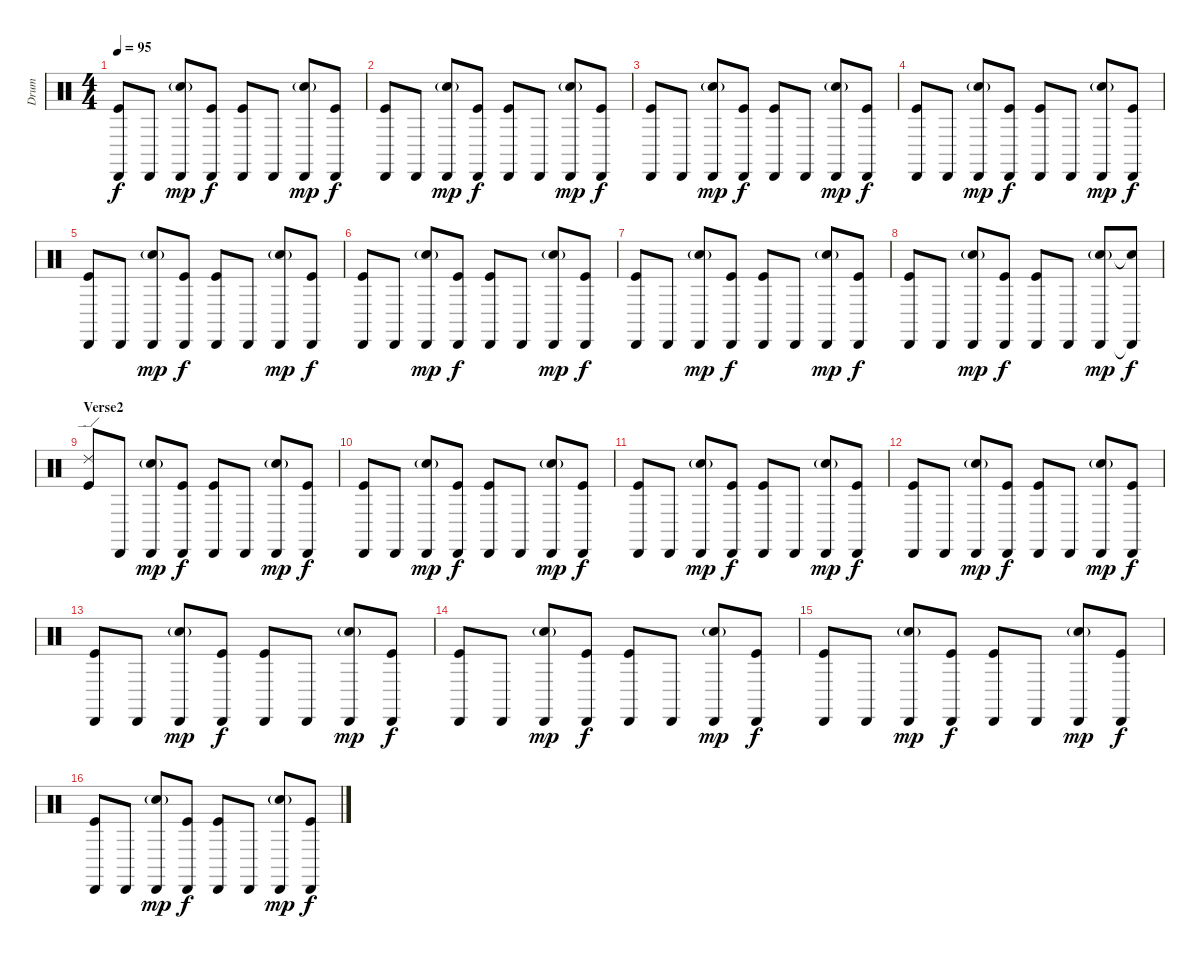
\track ("Drum" "Drum") {instrument percussion}
\staff {score}
\articulation defaults
\ts (4 4)
\tempo 95
\clef neutral
\ks c
("Cabasa (hit)" "Kick (hit)").8{dy f} "Cabasa (hit)".8 ("Cabasa (hit)" "Electric Snare (hit)"{g}).8{dy mp} ("Cabasa (hit)" "Kick (hit)").8{dy f} ("Cabasa (hit)" "Kick (hit)").8 "Cabasa (hit)".8 ("Cabasa (hit)" "Electric Snare (hit)"{g}).8{dy mp} ("Cabasa (hit)" "Kick (hit)").8{dy f} |
("Cabasa (hit)" "Kick (hit)").8 "Cabasa (hit)".8 ("Cabasa (hit)" "Electric Snare (hit)"{g}).8{dy mp} ("Cabasa (hit)" "Kick (hit)").8{dy f} ("Cabasa (hit)" "Kick (hit)").8 "Cabasa (hit)".8 ("Cabasa (hit)" "Electric Snare (hit)"{g}).8{dy mp} ("Cabasa (hit)" "Kick (hit)").8{dy f} |
("Cabasa (hit)" "Kick (hit)").8 "Cabasa (hit)".8 ("Cabasa (hit)" "Electric Snare (hit)"{g}).8{dy mp} ("Cabasa (hit)" "Kick (hit)").8{dy f} ("Cabasa (hit)" "Kick (hit)").8 "Cabasa (hit)".8 ("Cabasa (hit)" "Electric Snare (hit)"{g}).8{dy mp} ("Cabasa (hit)" "Kick (hit)").8{dy f} |
("Cabasa (hit)" "Kick (hit)").8 "Cabasa (hit)".8 ("Cabasa (hit)" "Electric Snare (hit)"{g}).8{dy mp} ("Cabasa (hit)" "Kick (hit)").8{dy f} ("Cabasa (hit)" "Kick (hit)").8 "Cabasa (hit)".8 ("Cabasa (hit)" "Electric Snare (hit)"{g}).8{dy mp} ("Cabasa (hit)" "Kick (hit)").8{dy f} |
("Cabasa (hit)" "Kick (hit)").8 "Cabasa (hit)".8 ("Cabasa (hit)" "Electric Snare (hit)"{g}).8{dy mp} ("Cabasa (hit)" "Kick (hit)").8{dy f} ("Cabasa (hit)" "Kick (hit)").8 "Cabasa (hit)".8 ("Cabasa (hit)" "Electric Snare (hit)"{g}).8{dy mp} ("Cabasa (hit)" "Kick (hit)").8{dy f} |
("Cabasa (hit)" "Kick (hit)").8 "Cabasa (hit)".8 ("Cabasa (hit)" "Electric Snare (hit)"{g}).8{dy mp} ("Cabasa (hit)" "Kick (hit)").8{dy f} ("Cabasa (hit)" "Kick (hit)").8 "Cabasa (hit)".8 ("Cabasa (hit)" "Electric Snare (hit)"{g}).8{dy mp} ("Cabasa (hit)" "Kick (hit)").8{dy f} |
("Cabasa (hit)" "Kick (hit)").8 "Cabasa (hit)".8 ("Cabasa (hit)" "Electric Snare (hit)"{g}).8{dy mp} ("Cabasa (hit)" "Kick (hit)").8{dy f} ("Cabasa (hit)" "Kick (hit)").8 "Cabasa (hit)".8 ("Cabasa (hit)" "Electric Snare (hit)"{g}).8{dy mp} ("Cabasa (hit)" "Kick (hit)").8{dy f} |
("Cabasa (hit)" "Kick (hit)").8 "Cabasa (hit)".8 ("Cabasa (hit)" "Electric Snare (hit)"{g}).8{dy mp} ("Cabasa (hit)" "Kick (hit)").8{dy f} ("Cabasa (hit)" "Kick (hit)").8 "Cabasa (hit)".8 ("Cabasa (hit)" "Electric Snare (hit)"{g}).8{dy mp} ("Cabasa (hit)"{t} "Snare (hit)"{t}).8{dy f} |
\section ("" "Verse2")
("Ride (edge) 2" "Kick (hit)").8 "Cabasa (hit)".8 ("Cabasa (hit)" "Electric Snare (hit)"{g}).8{dy mp} ("Cabasa (hit)" "Kick (hit)").8{dy f} ("Cabasa (hit)" "Kick (hit)").8 "Cabasa (hit)".8 ("Cabasa (hit)" "Electric Snare (hit)"{g}).8{dy mp} ("Cabasa (hit)" "Kick (hit)").8{dy f} |
("Cabasa (hit)" "Kick (hit)").8 "Cabasa (hit)".8 ("Cabasa (hit)" "Electric Snare (hit)"{g}).8{dy mp} ("Cabasa (hit)" "Kick (hit)").8{dy f} ("Cabasa (hit)" "Kick (hit)").8 "Cabasa (hit)".8 ("Cabasa (hit)" "Electric Snare (hit)"{g}).8{dy mp} ("Cabasa (hit)" "Kick (hit)").8{dy f} |
("Cabasa (hit)" "Kick (hit)").8 "Cabasa (hit)".8 ("Cabasa (hit)" "Electric Snare (hit)"{g}).8{dy mp} ("Cabasa (hit)" "Kick (hit)").8{dy f} ("Cabasa (hit)" "Kick (hit)").8 "Cabasa (hit)".8 ("Cabasa (hit)" "Electric Snare (hit)"{g}).8{dy mp} ("Cabasa (hit)" "Kick (hit)").8{dy f} |
("Cabasa (hit)" "Kick (hit)").8 "Cabasa (hit)".8 ("Cabasa (hit)" "Electric Snare (hit)"{g}).8{dy mp} ("Cabasa (hit)" "Kick (hit)").8{dy f} ("Cabasa (hit)" "Kick (hit)").8 "Cabasa (hit)".8 ("Cabasa (hit)" "Electric Snare (hit)"{g}).8{dy mp} ("Cabasa (hit)" "Kick (hit)").8{dy f} |
("Cabasa (hit)" "Kick (hit)").8 "Cabasa (hit)".8 ("Cabasa (hit)" "Electric Snare (hit)"{g}).8{dy mp} ("Cabasa (hit)" "Kick (hit)").8{dy f} ("Cabasa (hit)" "Kick (hit)").8 "Cabasa (hit)".8 ("Cabasa (hit)" "Electric Snare (hit)"{g}).8{dy mp} ("Cabasa (hit)" "Kick (hit)").8{dy f} |
("Cabasa (hit)" "Kick (hit)").8 "Cabasa (hit)".8 ("Cabasa (hit)" "Electric Snare (hit)"{g}).8{dy mp} ("Cabasa (hit)" "Kick (hit)").8{dy f} ("Cabasa (hit)" "Kick (hit)").8 "Cabasa (hit)".8 ("Cabasa (hit)" "Electric Snare (hit)"{g}).8{dy mp} ("Cabasa (hit)" "Kick (hit)").8{dy f} |
("Cabasa (hit)" "Kick (hit)").8 "Cabasa (hit)".8 ("Cabasa (hit)" "Electric Snare (hit)"{g}).8{dy mp} ("Cabasa (hit)" "Kick (hit)").8{dy f} ("Cabasa (hit)" "Kick (hit)").8 "Cabasa (hit)".8 ("Cabasa (hit)" "Electric Snare (hit)"{g}).8{dy mp} ("Cabasa (hit)" "Kick (hit)").8{dy f} |
("Cabasa (hit)" "Kick (hit)").8 "Cabasa (hit)".8 ("Cabasa (hit)" "Electric Snare (hit)"{g}).8{dy mp} ("Cabasa (hit)" "Kick (hit)").8{dy f} ("Cabasa (hit)" "Kick (hit)").8 "Cabasa (hit)".8 ("Cabasa (hit)" "Electric Snare (hit)"{g}).8{dy mp} ("Cabasa (hit)" "Kick (hit)").8{dy f}
